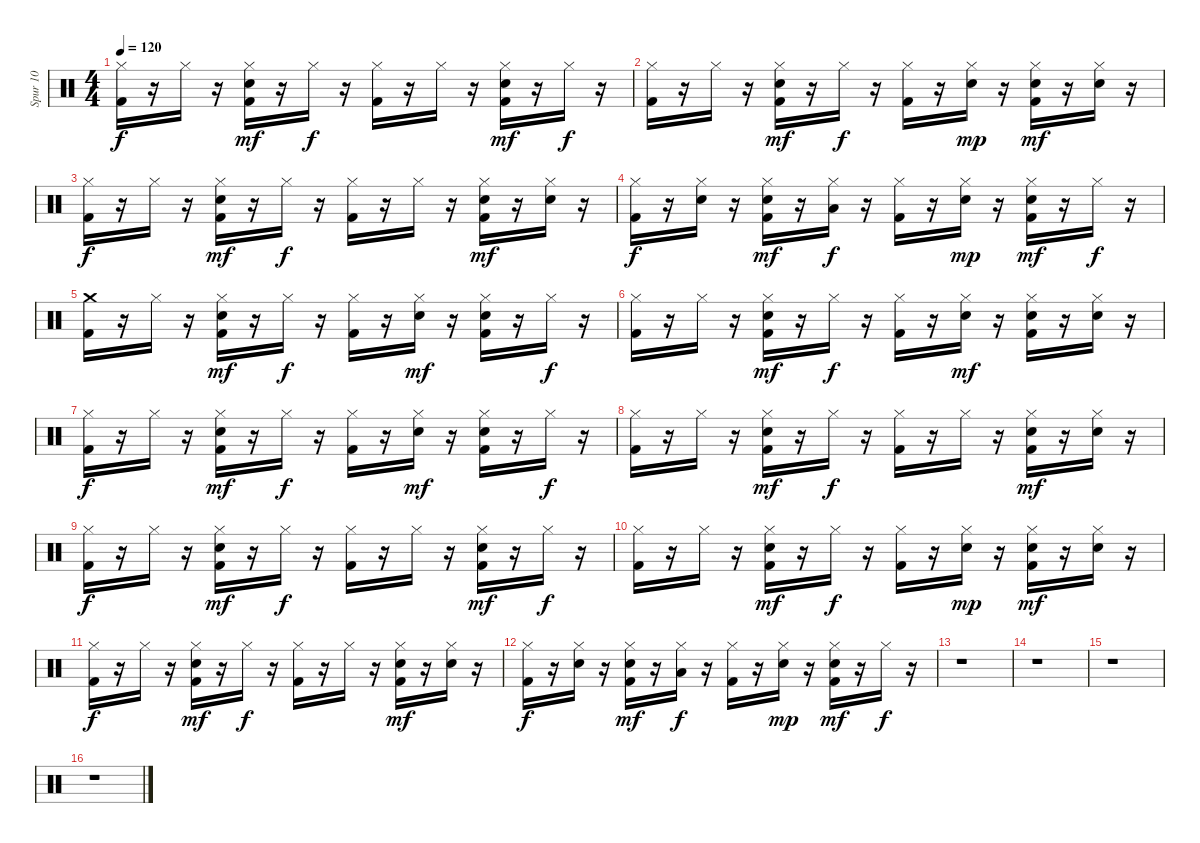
\track ("Spur 10" "Spur 10") {instrument percussion}
\staff {score}
\articulation defaults
\ts (4 4)
\tempo 120
\clef neutral
\ks c
("Hi-Hat (closed)" "Kick (hit) 2").16{dy f} r.16 "Hi-Hat (closed)".16 r.16 ("Hi-Hat (closed)" "Kick (hit) 2" "Snare (hit) 2").16{dy mf} r.16 "Hi-Hat (closed)".16{dy f} r.16 ("Kick (hit) 2" "Hi-Hat (closed)").16 r.16 "Hi-Hat (closed)".16 r.16 ("Hi-Hat (closed)" "Kick (hit) 2" "Snare (hit) 2").16{dy mf} r.16 "Hi-Hat (closed)".16{dy f} r.16 |
("Hi-Hat (closed)" "Kick (hit) 2").16 r.16 "Hi-Hat (closed)".16 r.16 ("Hi-Hat (closed)" "Kick (hit) 2" "Snare (hit) 2").16{dy mf} r.16 "Hi-Hat (closed)".16{dy f} r.16 ("Kick (hit) 2" "Hi-Hat (closed)").16 r.16 ("Hi-Hat (closed)" "Snare (hit) 2").16{dy mp} r.16 ("Hi-Hat (closed)" "Kick (hit) 2" "Snare (hit) 2").16{dy mf} r.16 ("Hi-Hat (closed)" "Snare (hit) 2").16 r.16 |
("Hi-Hat (closed)" "Kick (hit) 2").16{dy f} r.16 "Hi-Hat (closed)".16 r.16 ("Hi-Hat (closed)" "Kick (hit) 2" "Snare (hit) 2").16{dy mf} r.16 "Hi-Hat (closed)".16{dy f} r.16 ("Kick (hit) 2" "Hi-Hat (closed)").16 r.16 "Hi-Hat (closed)".16 r.16 ("Hi-Hat (closed)" "Kick (hit) 2" "Snare (hit) 2").16{dy mf} r.16 ("Hi-Hat (closed)" "Snare (hit) 2").16 r.16 |
("Hi-Hat (closed)" "Kick (hit) 2").16{dy f} r.16 ("Electric Snare (hit)" "Hi-Hat (closed)").16 r.16 ("Hi-Hat (closed)" "Kick (hit) 2" "Snare (hit) 2").16{dy mf} r.16 ("Hi-Hat (closed)" "Low Tom (hit)").16{dy f} r.16 ("Kick (hit) 2" "Hi-Hat (closed)").16 r.16 ("Hi-Hat (closed)" "Snare (hit) 2").16{dy mp} r.16 ("Hi-Hat (closed)" "Kick (hit) 2" "Snare (hit) 2").16{dy mf} r.16 "Hi-Hat (closed)".16{dy f} r.16 |
("Crash medium (hit)" "Kick (hit) 2").16 r.16 "Hi-Hat (closed)".16 r.16 ("Kick (hit) 2" "Hi-Hat (closed)" "Snare (hit) 2").16{dy mf} r.16 "Hi-Hat (closed)".16{dy f} r.16 ("Kick (hit) 2" "Hi-Hat (closed)").16 r.16 ("Hi-Hat (closed)" "Snare (hit) 2").16{dy mf} r.16 ("Kick (hit) 2" "Hi-Hat (closed)" "Snare (hit) 2").16 r.16 "Hi-Hat (closed)".16{dy f} r.16 |
("Hi-Hat (closed)" "Kick (hit) 2").16 r.16 "Hi-Hat (closed)".16 r.16 ("Kick (hit) 2" "Hi-Hat (closed)" "Snare (hit) 2").16{dy mf} r.16 "Hi-Hat (closed)".16{dy f} r.16 ("Hi-Hat (closed)" "Kick (hit) 2").16 r.16 ("Hi-Hat (closed)" "Snare (hit) 2").16{dy mf} r.16 ("Kick (hit) 2" "Hi-Hat (closed)" "Snare (hit) 2").16 r.16 ("Hi-Hat (closed)" "Snare (hit) 2").16 r.16 |
("Hi-Hat (closed)" "Kick (hit) 2").16{dy f} r.16 "Hi-Hat (closed)".16 r.16 ("Kick (hit) 2" "Hi-Hat (closed)" "Snare (hit) 2").16{dy mf} r.16 "Hi-Hat (closed)".16{dy f} r.16 ("Kick (hit) 2" "Hi-Hat (closed)").16 r.16 ("Hi-Hat (closed)" "Snare (hit) 2").16{dy mf} r.16 ("Kick (hit) 2" "Hi-Hat (closed)" "Snare (hit) 2").16 r.16 "Hi-Hat (closed)".16{dy f} r.16 |
("Hi-Hat (closed)" "Kick (hit) 2").16 r.16 "Hi-Hat (closed)".16 r.16 ("Kick (hit) 2" "Hi-Hat (closed)" "Snare (hit) 2").16{dy mf} r.16 "Hi-Hat (closed)".16{dy f} r.16 ("Kick (hit) 2" "Hi-Hat (closed)").16 r.16 "Hi-Hat (closed)".16 r.16 ("Kick (hit) 2" "Hi-Hat (closed)" "Snare (hit) 2").16{dy mf} r.16 ("Hi-Hat (closed)" "Snare (hit) 2").16 r.16 |
("Hi-Hat (closed)" "Kick (hit) 2").16{dy f} r.16 "Hi-Hat (closed)".16 r.16 ("Hi-Hat (closed)" "Kick (hit) 2" "Snare (hit) 2").16{dy mf} r.16 "Hi-Hat (closed)".16{dy f} r.16 ("Kick (hit) 2" "Hi-Hat (closed)").16 r.16 "Hi-Hat (closed)".16 r.16 ("Hi-Hat (closed)" "Kick (hit) 2" "Snare (hit) 2").16{dy mf} r.16 "Hi-Hat (closed)".16{dy f} r.16 |
("Hi-Hat (closed)" "Kick (hit) 2").16 r.16 "Hi-Hat (closed)".16 r.16 ("Hi-Hat (closed)" "Kick (hit) 2" "Snare (hit) 2").16{dy mf} r.16 "Hi-Hat (closed)".16{dy f} r.16 ("Kick (hit) 2" "Hi-Hat (closed)").16 r.16 ("Hi-Hat (closed)" "Snare (hit) 2").16{dy mp} r.16 ("Hi-Hat (closed)" "Kick (hit) 2" "Snare (hit) 2").16{dy mf} r.16 ("Hi-Hat (closed)" "Snare (hit) 2").16 r.16 |
("Hi-Hat (closed)" "Kick (hit) 2").16{dy f} r.16 "Hi-Hat (closed)".16 r.16 ("Hi-Hat (closed)" "Kick (hit) 2" "Snare (hit) 2").16{dy mf} r.16 "Hi-Hat (closed)".16{dy f} r.16 ("Kick (hit) 2" "Hi-Hat (closed)").16 r.16 "Hi-Hat (closed)".16 r.16 ("Hi-Hat (closed)" "Kick (hit) 2" "Snare (hit) 2").16{dy mf} r.16 ("Hi-Hat (closed)" "Snare (hit) 2").16 r.16 |
("Hi-Hat (closed)" "Kick (hit) 2").16{dy f} r.16 ("Electric Snare (hit)" "Hi-Hat (closed)").16 r.16 ("Hi-Hat (closed)" "Kick (hit) 2" "Snare (hit) 2").16{dy mf} r.16 ("Hi-Hat (closed)" "Low Tom (hit)").16{dy f} r.16 ("Kick (hit) 2" "Hi-Hat (closed)").16 r.16 ("Hi-Hat (closed)" "Snare (hit) 2").16{dy mp} r.16 ("Hi-Hat (closed)" "Kick (hit) 2" "Snare (hit) 2").16{dy mf} r.16 "Hi-Hat (closed)".16{dy f} r.16 |
r.1 |
r.1 |
r.1 |
r.1
